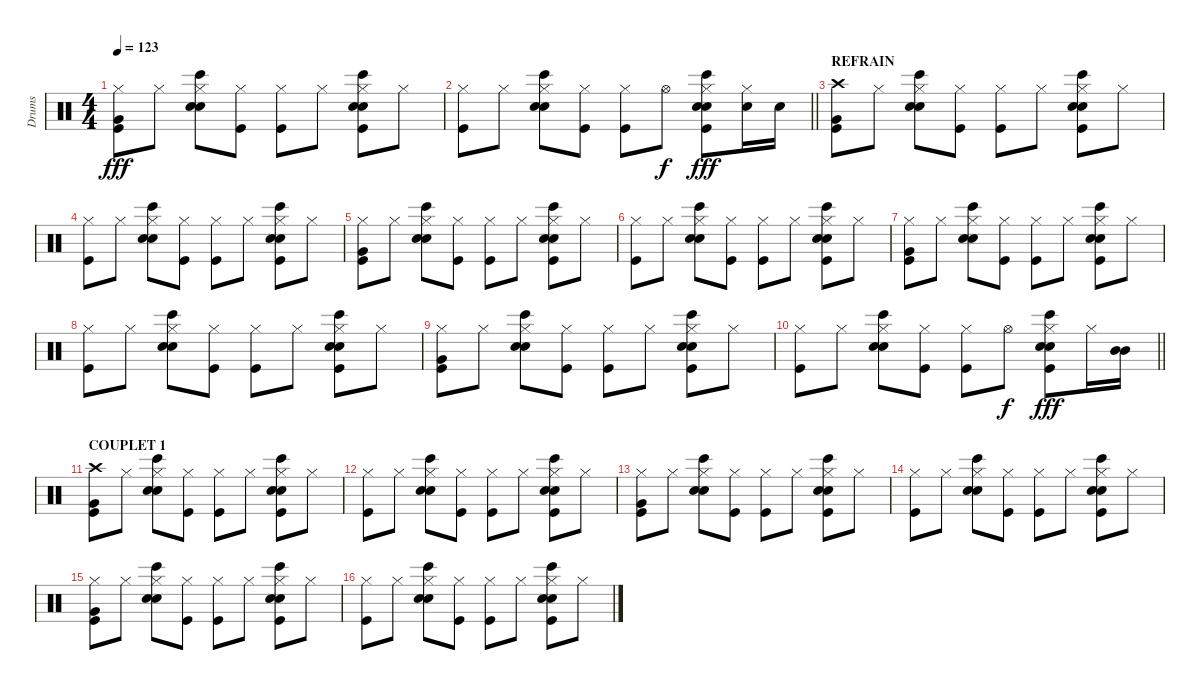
\track ("Drums" "Drums") {instrument percussion}
\staff {score}
\articulation defaults
\ts (4 4)
\tempo 123
\clef neutral
\ks c
("Kick (hit)" "Hi-Hat (closed)" "Very Low Tom (hit)").8{dy fff} "Hi-Hat (closed)".8 ("Hi-Hat (closed)" "Bongo High (hit)" "Hand Clap (hit)" "Electric Snare (hit)").8 ("Kick (hit)" "Hi-Hat (closed)").8 ("Hi-Hat (closed)" "Kick (hit)").8 "Hi-Hat (closed)".8 ("Hi-Hat (closed)" "Kick (hit)" "Electric Snare (hit)" "Hand Clap (hit)" "Bongo High (hit)").8 "Hi-Hat (closed)".8 |
\barLineRight lightlight
("Hi-Hat (closed)" "Kick (hit)").8 "Hi-Hat (closed)".8 ("Hi-Hat (closed)" "Electric Snare (hit)" "Bongo High (hit)" "Hand Clap (hit)").8 ("Hi-Hat (closed)" "Kick (hit)").8 ("Hi-Hat (closed)" "Kick (hit)").8 "Hi-Hat (open)".8{dy f} ("Hi-Hat (closed)" "Bongo High (hit)" "Electric Snare (hit)" "Kick (hit)" "Hand Clap (hit)").8{dy fff} ("Electric Snare (hit)" "Hi-Hat (closed)").16 "Electric Snare (hit)".16 |
\section ("" "REFRAIN")
("Kick (hit)" "Crash high (hit)" "Very Low Tom (hit)").8 "Hi-Hat (closed)".8 ("Hi-Hat (closed)" "Bongo High (hit)" "Hand Clap (hit)" "Electric Snare (hit)").8 ("Kick (hit)" "Hi-Hat (closed)").8 ("Hi-Hat (closed)" "Kick (hit)").8 "Hi-Hat (closed)".8 ("Hi-Hat (closed)" "Kick (hit)" "Electric Snare (hit)" "Hand Clap (hit)" "Bongo High (hit)").8 "Hi-Hat (closed)".8 |
("Hi-Hat (closed)" "Kick (hit)").8 "Hi-Hat (closed)".8 ("Hi-Hat (closed)" "Electric Snare (hit)" "Bongo High (hit)" "Hand Clap (hit)").8 ("Hi-Hat (closed)" "Kick (hit)").8 ("Hi-Hat (closed)" "Kick (hit)").8 "Hi-Hat (closed)".8 ("Hi-Hat (closed)" "Kick (hit)" "Electric Snare (hit)" "Bongo High (hit)" "Hand Clap (hit)").8 "Hi-Hat (closed)".8 |
("Kick (hit)" "Hi-Hat (closed)" "Very Low Tom (hit)").8 "Hi-Hat (closed)".8 ("Hi-Hat (closed)" "Bongo High (hit)" "Hand Clap (hit)" "Electric Snare (hit)").8 ("Kick (hit)" "Hi-Hat (closed)").8 ("Hi-Hat (closed)" "Kick (hit)").8 "Hi-Hat (closed)".8 ("Hi-Hat (closed)" "Kick (hit)" "Electric Snare (hit)" "Hand Clap (hit)" "Bongo High (hit)").8 "Hi-Hat (closed)".8 |
("Hi-Hat (closed)" "Kick (hit)").8 "Hi-Hat (closed)".8 ("Hi-Hat (closed)" "Electric Snare (hit)" "Bongo High (hit)" "Hand Clap (hit)").8 ("Hi-Hat (closed)" "Kick (hit)").8 ("Hi-Hat (closed)" "Kick (hit)").8 "Hi-Hat (closed)".8 ("Hi-Hat (closed)" "Kick (hit)" "Electric Snare (hit)" "Bongo High (hit)" "Hand Clap (hit)").8 "Hi-Hat (closed)".8 |
("Kick (hit)" "Hi-Hat (closed)" "Very Low Tom (hit)").8 "Hi-Hat (closed)".8 ("Hi-Hat (closed)" "Bongo High (hit)" "Hand Clap (hit)" "Electric Snare (hit)").8 ("Kick (hit)" "Hi-Hat (closed)").8 ("Hi-Hat (closed)" "Kick (hit)").8 "Hi-Hat (closed)".8 ("Hi-Hat (closed)" "Kick (hit)" "Electric Snare (hit)" "Hand Clap (hit)" "Bongo High (hit)").8 "Hi-Hat (closed)".8 |
("Hi-Hat (closed)" "Kick (hit)").8 "Hi-Hat (closed)".8 ("Hi-Hat (closed)" "Electric Snare (hit)" "Bongo High (hit)" "Hand Clap (hit)").8 ("Hi-Hat (closed)" "Kick (hit)").8 ("Hi-Hat (closed)" "Kick (hit)").8 "Hi-Hat (closed)".8 ("Hi-Hat (closed)" "Kick (hit)" "Electric Snare (hit)" "Bongo High (hit)" "Hand Clap (hit)").8 "Hi-Hat (closed)".8 |
("Kick (hit)" "Hi-Hat (closed)" "Very Low Tom (hit)").8 "Hi-Hat (closed)".8 ("Hi-Hat (closed)" "Bongo High (hit)" "Hand Clap (hit)" "Electric Snare (hit)").8 ("Kick (hit)" "Hi-Hat (closed)").8 ("Hi-Hat (closed)" "Kick (hit)").8 "Hi-Hat (closed)".8 ("Hi-Hat (closed)" "Kick (hit)" "Electric Snare (hit)" "Hand Clap (hit)" "Bongo High (hit)").8 "Hi-Hat (closed)".8 |
\barLineRight lightlight
("Hi-Hat (closed)" "Kick (hit)").8 "Hi-Hat (closed)".8 ("Hi-Hat (closed)" "Electric Snare (hit)" "Bongo High (hit)" "Hand Clap (hit)").8 ("Hi-Hat (closed)" "Kick (hit)").8 ("Hi-Hat (closed)" "Kick (hit)").8 "Hi-Hat (open)".8{dy f} ("Hi-Hat (closed)" "Bongo High (hit)" "Electric Snare (hit)" "Kick (hit)" "Hand Clap (hit)").8{dy fff} "Hi-Hat (closed)".16 ("Mid Tom (hit)" "Mid Tom (hit)").16 |
\section ("" "COUPLET 1")
("Kick (hit)" "Crash high (hit)" "Very Low Tom (hit)").8 "Hi-Hat (closed)".8 ("Hi-Hat (closed)" "Bongo High (hit)" "Hand Clap (hit)" "Electric Snare (hit)").8 ("Kick (hit)" "Hi-Hat (closed)").8 ("Hi-Hat (closed)" "Kick (hit)").8 "Hi-Hat (closed)".8 ("Hi-Hat (closed)" "Kick (hit)" "Electric Snare (hit)" "Hand Clap (hit)" "Bongo High (hit)").8 "Hi-Hat (closed)".8 |
("Hi-Hat (closed)" "Kick (hit)").8 "Hi-Hat (closed)".8 ("Hi-Hat (closed)" "Electric Snare (hit)" "Bongo High (hit)" "Hand Clap (hit)").8 ("Hi-Hat (closed)" "Kick (hit)").8 ("Hi-Hat (closed)" "Kick (hit)").8 "Hi-Hat (closed)".8 ("Hi-Hat (closed)" "Kick (hit)" "Electric Snare (hit)" "Bongo High (hit)" "Hand Clap (hit)").8 "Hi-Hat (closed)".8 |
("Kick (hit)" "Hi-Hat (closed)" "Very Low Tom (hit)").8 "Hi-Hat (closed)".8 ("Hi-Hat (closed)" "Bongo High (hit)" "Hand Clap (hit)" "Electric Snare (hit)").8 ("Kick (hit)" "Hi-Hat (closed)").8 ("Hi-Hat (closed)" "Kick (hit)").8 "Hi-Hat (closed)".8 ("Hi-Hat (closed)" "Kick (hit)" "Electric Snare (hit)" "Hand Clap (hit)" "Bongo High (hit)").8 "Hi-Hat (closed)".8 |
("Hi-Hat (closed)" "Kick (hit)").8 "Hi-Hat (closed)".8 ("Hi-Hat (closed)" "Electric Snare (hit)" "Bongo High (hit)" "Hand Clap (hit)").8 ("Hi-Hat (closed)" "Kick (hit)").8 ("Hi-Hat (closed)" "Kick (hit)").8 "Hi-Hat (closed)".8 ("Hi-Hat (closed)" "Kick (hit)" "Electric Snare (hit)" "Bongo High (hit)" "Hand Clap (hit)").8 "Hi-Hat (closed)".8 |
("Kick (hit)" "Hi-Hat (closed)" "Very Low Tom (hit)").8 "Hi-Hat (closed)".8 ("Hi-Hat (closed)" "Bongo High (hit)" "Hand Clap (hit)" "Electric Snare (hit)").8 ("Kick (hit)" "Hi-Hat (closed)").8 ("Hi-Hat (closed)" "Kick (hit)").8 "Hi-Hat (closed)".8 ("Hi-Hat (closed)" "Kick (hit)" "Electric Snare (hit)" "Hand Clap (hit)" "Bongo High (hit)").8 "Hi-Hat (closed)".8 |
("Hi-Hat (closed)" "Kick (hit)").8 "Hi-Hat (closed)".8 ("Hi-Hat (closed)" "Electric Snare (hit)" "Bongo High (hit)" "Hand Clap (hit)").8 ("Hi-Hat (closed)" "Kick (hit)").8 ("Hi-Hat (closed)" "Kick (hit)").8 "Hi-Hat (closed)".8 ("Hi-Hat (closed)" "Kick (hit)" "Electric Snare (hit)" "Bongo High (hit)" "Hand Clap (hit)").8 "Hi-Hat (closed)".8
